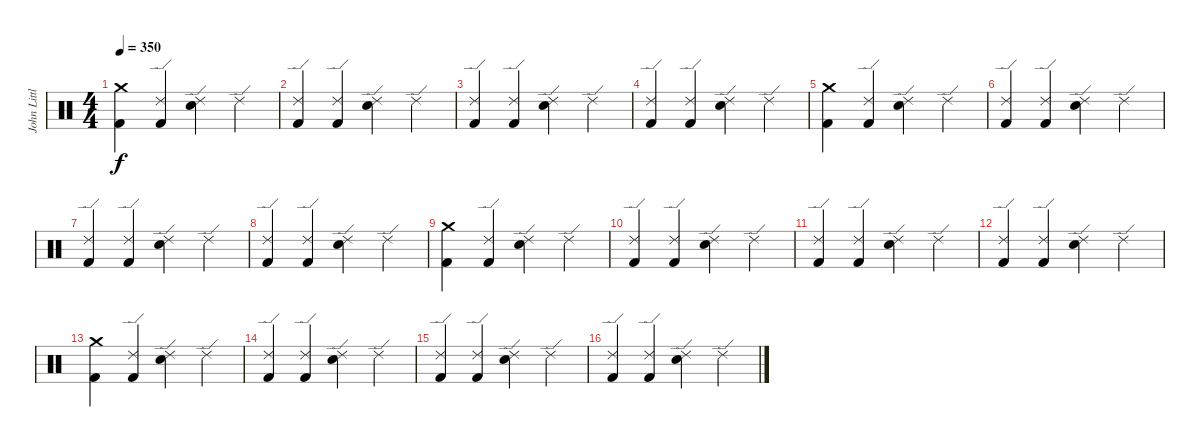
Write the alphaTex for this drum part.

\track ("John Littler - Drums" "John Littl") {instrument percussion}
\staff {score}
\articulation defaults
\ts (4 4)
\tempo 350
\clef neutral
\ks c
("Crash medium (hit)" "Kick (hit) 2").4{dy f} ("Ride (edge) 2" "Kick (hit) 2").4 ("Ride (edge) 2" "Snare (hit) 2").4 "Ride (edge) 2".4 |
("Ride (edge) 2" "Kick (hit) 2").4 ("Ride (edge) 2" "Kick (hit) 2").4 ("Ride (edge) 2" "Snare (hit) 2").4 "Ride (edge) 2".4 |
("Ride (edge) 2" "Kick (hit) 2").4 ("Ride (edge) 2" "Kick (hit) 2").4 ("Ride (edge) 2" "Snare (hit) 2").4 "Ride (edge) 2".4 |
("Ride (edge) 2" "Kick (hit) 2").4 ("Ride (edge) 2" "Kick (hit) 2").4 ("Ride (edge) 2" "Snare (hit) 2").4 "Ride (edge) 2".4 |
("Crash medium (hit)" "Kick (hit) 2").4 ("Ride (edge) 2" "Kick (hit) 2").4 ("Ride (edge) 2" "Snare (hit) 2").4 "Ride (edge) 2".4 |
("Ride (edge) 2" "Kick (hit) 2").4 ("Ride (edge) 2" "Kick (hit) 2").4 ("Ride (edge) 2" "Snare (hit) 2").4 "Ride (edge) 2".4 |
("Ride (edge) 2" "Kick (hit) 2").4 ("Ride (edge) 2" "Kick (hit) 2").4 ("Ride (edge) 2" "Snare (hit) 2").4 "Ride (edge) 2".4 |
("Ride (edge) 2" "Kick (hit) 2").4 ("Ride (edge) 2" "Kick (hit) 2").4 ("Ride (edge) 2" "Snare (hit) 2").4 "Ride (edge) 2".4 |
("Crash medium (hit)" "Kick (hit) 2").4 ("Ride (edge) 2" "Kick (hit) 2").4 ("Ride (edge) 2" "Snare (hit) 2").4 "Ride (edge) 2".4 |
("Ride (edge) 2" "Kick (hit) 2").4 ("Ride (edge) 2" "Kick (hit) 2").4 ("Ride (edge) 2" "Snare (hit) 2").4 "Ride (edge) 2".4 |
("Ride (edge) 2" "Kick (hit) 2").4 ("Ride (edge) 2" "Kick (hit) 2").4 ("Ride (edge) 2" "Snare (hit) 2").4 "Ride (edge) 2".4 |
("Ride (edge) 2" "Kick (hit) 2").4 ("Ride (edge) 2" "Kick (hit) 2").4 ("Ride (edge) 2" "Snare (hit) 2").4 "Ride (edge) 2".4 |
("Crash medium (hit)" "Kick (hit) 2").4 ("Ride (edge) 2" "Kick (hit) 2").4 ("Ride (edge) 2" "Snare (hit) 2").4 "Ride (edge) 2".4 |
("Ride (edge) 2" "Kick (hit) 2").4 ("Ride (edge) 2" "Kick (hit) 2").4 ("Ride (edge) 2" "Snare (hit) 2").4 "Ride (edge) 2".4 |
("Ride (edge) 2" "Kick (hit) 2").4 ("Ride (edge) 2" "Kick (hit) 2").4 ("Ride (edge) 2" "Snare (hit) 2").4 "Ride (edge) 2".4 |
("Ride (edge) 2" "Kick (hit) 2").4 ("Ride (edge) 2" "Kick (hit) 2").4 ("Ride (edge) 2" "Snare (hit) 2").4 "Ride (edge) 2".4
